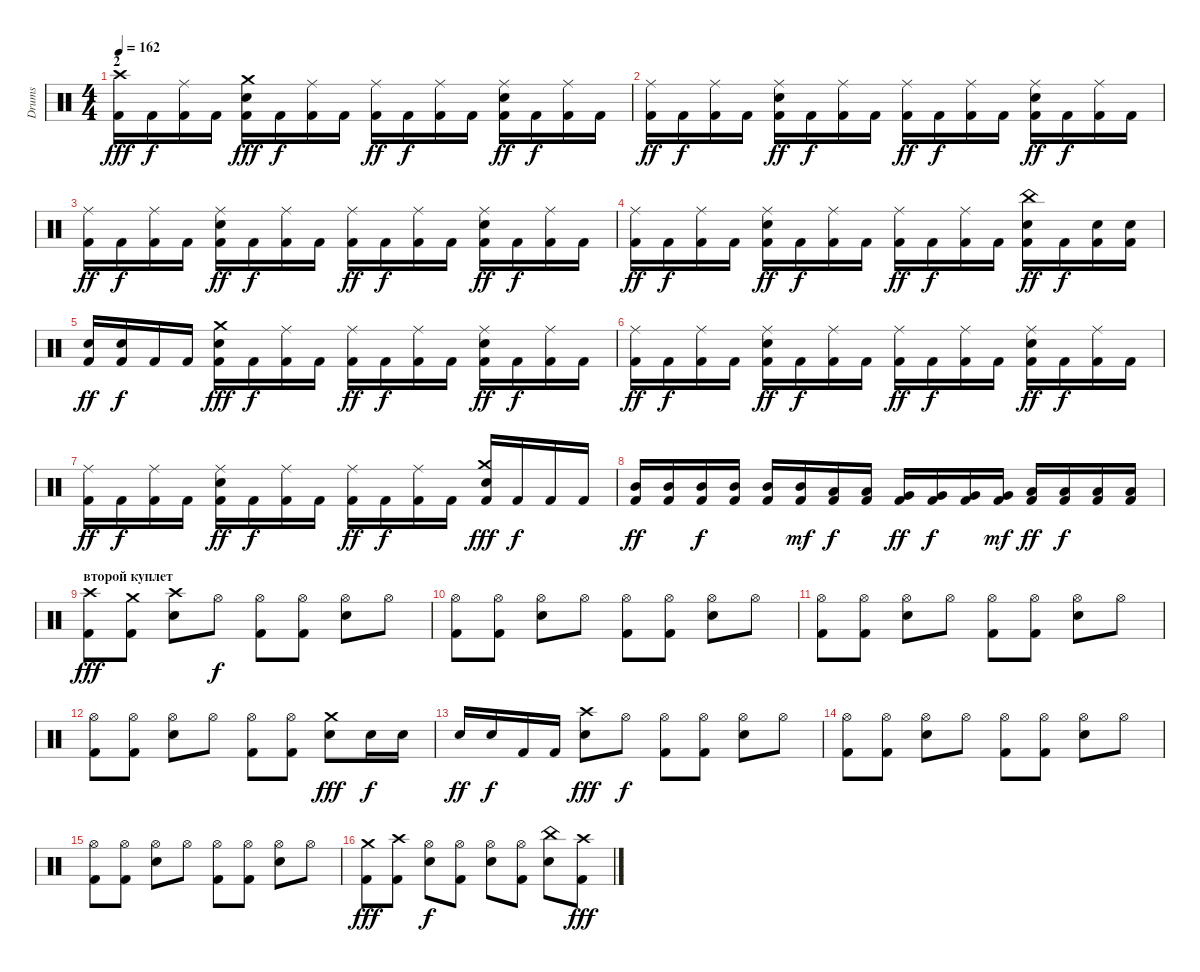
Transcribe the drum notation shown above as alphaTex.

\track ("Drums" "Drums") {instrument percussion}
\staff {score}
\articulation defaults
\ts (4 4)
\section ("" "2")
\tempo 162
\clef neutral
\ks c
("Crash high (hit)" "Kick (hit) 2").16{dy fff} "Kick (hit) 2".16{dy f} ("Ride (middle)" "Kick (hit) 2").16 "Kick (hit) 2".16 ("Crash medium (hit)" "Snare (hit) 2" "Kick (hit) 2").16{dy fff} "Kick (hit) 2".16{dy f} ("Ride (middle)" "Kick (hit) 2").16 "Kick (hit) 2".16 ("Ride (middle)" "Kick (hit) 2").16{dy ff} "Kick (hit) 2".16{dy f} ("Ride (middle)" "Kick (hit) 2").16 "Kick (hit) 2".16 ("Ride (middle)" "Snare (hit) 2" "Kick (hit) 2").16{dy ff} "Kick (hit) 2".16{dy f} ("Ride (middle)" "Kick (hit) 2").16 "Kick (hit) 2".16 |
("Ride (middle)" "Kick (hit) 2").16{dy ff} "Kick (hit) 2".16{dy f} ("Ride (middle)" "Kick (hit) 2").16 "Kick (hit) 2".16 ("Ride (middle)" "Snare (hit) 2" "Kick (hit) 2").16{dy ff} "Kick (hit) 2".16{dy f} ("Ride (middle)" "Kick (hit) 2").16 "Kick (hit) 2".16 ("Ride (middle)" "Kick (hit) 2").16{dy ff} "Kick (hit) 2".16{dy f} ("Ride (middle)" "Kick (hit) 2").16 "Kick (hit) 2".16 ("Ride (middle)" "Snare (hit) 2" "Kick (hit) 2").16{dy ff} "Kick (hit) 2".16{dy f} ("Ride (middle)" "Kick (hit) 2").16 "Kick (hit) 2".16 |
("Ride (middle)" "Kick (hit) 2").16{dy ff} "Kick (hit) 2".16{dy f} ("Ride (middle)" "Kick (hit) 2").16 "Kick (hit) 2".16 ("Ride (middle)" "Snare (hit) 2" "Kick (hit) 2").16{dy ff} "Kick (hit) 2".16{dy f} ("Ride (middle)" "Kick (hit) 2").16 "Kick (hit) 2".16 ("Ride (middle)" "Kick (hit) 2").16{dy ff} "Kick (hit) 2".16{dy f} ("Ride (middle)" "Kick (hit) 2").16 "Kick (hit) 2".16 ("Ride (middle)" "Snare (hit) 2" "Kick (hit) 2").16{dy ff} "Kick (hit) 2".16{dy f} ("Ride (middle)" "Kick (hit) 2").16 "Kick (hit) 2".16 |
("Ride (middle)" "Kick (hit) 2").16{dy ff} "Kick (hit) 2".16{dy f} ("Ride (middle)" "Kick (hit) 2").16 "Kick (hit) 2".16 ("Ride (middle)" "Snare (hit) 2" "Kick (hit) 2").16{dy ff} "Kick (hit) 2".16{dy f} ("Ride (middle)" "Kick (hit) 2").16 "Kick (hit) 2".16 ("Ride (middle)" "Kick (hit) 2").16{dy ff} "Kick (hit) 2".16{dy f} ("Ride (middle)" "Kick (hit) 2").16 "Kick (hit) 2".16 ("China (hit)" "Snare (hit) 2" "Kick (hit) 2").16{dy ff} "Kick (hit) 2".16{dy f} ("Snare (hit) 2" "Kick (hit) 2").16 ("Snare (hit) 2" "Kick (hit) 2").16 |
("Snare (hit) 2" "Kick (hit) 2").16{dy ff} ("Snare (hit) 2" "Kick (hit) 2").16{dy f} "Kick (hit) 2".16 "Kick (hit) 2".16 ("Crash medium (hit)" "Snare (hit) 2" "Kick (hit) 2").16{dy fff} "Kick (hit) 2".16{dy f} ("Ride (middle)" "Kick (hit) 2").16 "Kick (hit) 2".16 ("Ride (middle)" "Kick (hit) 2").16{dy ff} "Kick (hit) 2".16{dy f} ("Ride (middle)" "Kick (hit) 2").16 "Kick (hit) 2".16 ("Ride (middle)" "Snare (hit) 2" "Kick (hit) 2").16{dy ff} "Kick (hit) 2".16{dy f} ("Ride (middle)" "Kick (hit) 2").16 "Kick (hit) 2".16 |
("Ride (middle)" "Kick (hit) 2").16{dy ff} "Kick (hit) 2".16{dy f} ("Ride (middle)" "Kick (hit) 2").16 "Kick (hit) 2".16 ("Ride (middle)" "Snare (hit) 2" "Kick (hit) 2").16{dy ff} "Kick (hit) 2".16{dy f} ("Ride (middle)" "Kick (hit) 2").16 "Kick (hit) 2".16 ("Ride (middle)" "Kick (hit) 2").16{dy ff} "Kick (hit) 2".16{dy f} ("Ride (middle)" "Kick (hit) 2").16 "Kick (hit) 2".16 ("Ride (middle)" "Snare (hit) 2" "Kick (hit) 2").16{dy ff} "Kick (hit) 2".16{dy f} ("Ride (middle)" "Kick (hit) 2").16 "Kick (hit) 2".16 |
("Ride (middle)" "Kick (hit) 2").16{dy ff} "Kick (hit) 2".16{dy f} ("Ride (middle)" "Kick (hit) 2").16 "Kick (hit) 2".16 ("Ride (middle)" "Snare (hit) 2" "Kick (hit) 2").16{dy ff} "Kick (hit) 2".16{dy f} ("Ride (middle)" "Kick (hit) 2").16 "Kick (hit) 2".16 ("Ride (middle)" "Kick (hit) 2").16{dy ff} "Kick (hit) 2".16{dy f} ("Ride (middle)" "Kick (hit) 2").16 "Kick (hit) 2".16 ("Crash medium (hit)" "Snare (hit) 2" "Kick (hit) 2").16{dy fff} "Kick (hit) 2".16{dy f} "Kick (hit) 2".16 "Kick (hit) 2".16 |
("Mid Tom (hit)" "Kick (hit) 2").16{dy ff} ("Mid Tom (hit)" "Kick (hit) 2").16 ("Mid Tom (hit)" "Kick (hit) 2").16{dy f} ("Mid Tom (hit)" "Kick (hit) 2").16 ("Mid Tom (hit)" "Kick (hit) 2").16 ("Mid Tom (hit)" "Kick (hit) 2").16{dy mf} ("Low Tom (hit)" "Kick (hit) 2").16{dy f} ("Low Tom (hit)" "Kick (hit) 2").16 ("Very Low Tom (hit)" "Kick (hit) 2").16{dy ff} ("Very Low Tom (hit)" "Kick (hit) 2").16{dy f} ("Very Low Tom (hit)" "Kick (hit) 2").16 ("Very Low Tom (hit)" "Kick (hit) 2").16{dy mf} ("Low Floor Tom (hit)" "Kick (hit) 2").16{dy ff} ("Low Floor Tom (hit)" "Kick (hit) 2").16{dy f} ("Low Floor Tom (hit)" "Kick (hit) 2").16 ("Low Floor Tom (hit)" "Kick (hit) 2").16 |
\section ("" "второй куплет")
("Crash high (hit)" "Kick (hit) 2").8{dy fff} ("Crash medium (hit)" "Kick (hit) 2").8 ("Crash high (hit)" "Snare (hit) 2").8 "Hi-Hat (open)".8{dy f} ("Hi-Hat (open)" "Kick (hit) 2").8 ("Hi-Hat (open)" "Kick (hit) 2").8 ("Hi-Hat (open)" "Snare (hit) 2").8 "Hi-Hat (open)".8 |
("Hi-Hat (open)" "Kick (hit) 2").8 ("Hi-Hat (open)" "Kick (hit) 2").8 ("Hi-Hat (open)" "Snare (hit) 2").8 "Hi-Hat (open)".8 ("Hi-Hat (open)" "Kick (hit) 2").8 ("Hi-Hat (open)" "Kick (hit) 2").8 ("Hi-Hat (open)" "Snare (hit) 2").8 "Hi-Hat (open)".8 |
("Hi-Hat (open)" "Kick (hit) 2").8 ("Hi-Hat (open)" "Kick (hit) 2").8 ("Hi-Hat (open)" "Snare (hit) 2").8 "Hi-Hat (open)".8 ("Hi-Hat (open)" "Kick (hit) 2").8 ("Hi-Hat (open)" "Kick (hit) 2").8 ("Hi-Hat (open)" "Snare (hit) 2").8 "Hi-Hat (open)".8 |
("Hi-Hat (open)" "Kick (hit) 2").8 ("Hi-Hat (open)" "Kick (hit) 2").8 ("Hi-Hat (open)" "Snare (hit) 2").8 "Hi-Hat (open)".8 ("Hi-Hat (open)" "Kick (hit) 2").8 ("Hi-Hat (open)" "Kick (hit) 2").8 ("Crash medium (hit)" "Snare (hit) 2").8{dy fff} "Snare (hit) 2".16{dy f} "Snare (hit) 2".16 |
"Snare (hit) 2".16{dy ff} "Snare (hit) 2".16{dy f} "Kick (hit) 2".16 "Kick (hit) 2".16 ("Crash high (hit)" "Snare (hit) 2").8{dy fff} "Hi-Hat (open)".8{dy f} ("Hi-Hat (open)" "Kick (hit) 2").8 ("Hi-Hat (open)" "Kick (hit) 2").8 ("Hi-Hat (open)" "Snare (hit) 2").8 "Hi-Hat (open)".8 |
("Hi-Hat (open)" "Kick (hit) 2").8 ("Hi-Hat (open)" "Kick (hit) 2").8 ("Hi-Hat (open)" "Snare (hit) 2").8 "Hi-Hat (open)".8 ("Hi-Hat (open)" "Kick (hit) 2").8 ("Hi-Hat (open)" "Kick (hit) 2").8 ("Hi-Hat (open)" "Snare (hit) 2").8 "Hi-Hat (open)".8 |
("Hi-Hat (open)" "Kick (hit) 2").8 ("Hi-Hat (open)" "Kick (hit) 2").8 ("Hi-Hat (open)" "Snare (hit) 2").8 "Hi-Hat (open)".8 ("Hi-Hat (open)" "Kick (hit) 2").8 ("Hi-Hat (open)" "Kick (hit) 2").8 ("Hi-Hat (open)" "Snare (hit) 2").8 "Hi-Hat (open)".8 |
("Crash medium (hit)" "Kick (hit) 2").8{dy fff} ("Crash high (hit)" "Kick (hit) 2").8 ("Hi-Hat (open)" "Snare (hit) 2").8{dy f} ("Hi-Hat (open)" "Kick (hit) 2").8 ("Hi-Hat (open)" "Snare (hit) 2").8 ("Hi-Hat (open)" "Kick (hit) 2").8 ("China (hit)" "Snare (hit) 2").8 ("Crash high (hit)" "Kick (hit) 2").8{dy fff}
